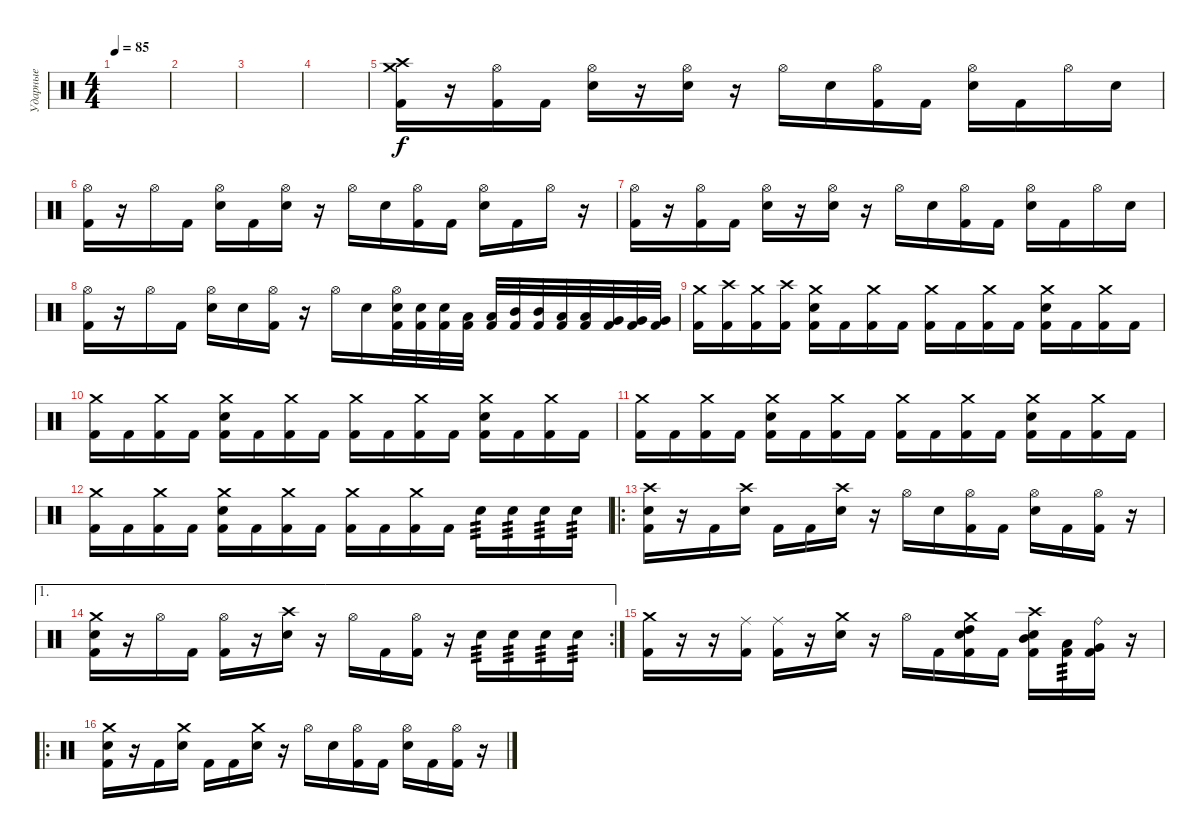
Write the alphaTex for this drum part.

\track ("Ударные" "Ударные") {instrument percussion}
\staff {score}
\articulation defaults
\ts (4 4)
\tempo 85
\clef neutral
\ks c
|
|
|
|
("Crash medium (hit)" "Crash high (hit)" "Kick (hit) 2").16 r.16 ("Hi-Hat (open)" "Kick (hit) 2").16 "Kick (hit) 2".16 ("Hi-Hat (open)" "Electric Snare (hit)").16 r.16 ("Hi-Hat (open)" "Electric Snare (hit)").16 r.16 "Hi-Hat (open)".16 "Electric Snare (hit)".16 ("Hi-Hat (open)" "Kick (hit) 2").16 "Kick (hit) 2".16 ("Hi-Hat (open)" "Electric Snare (hit)").16 "Kick (hit) 2".16 "Hi-Hat (open)".16 "Electric Snare (hit)".16 |
("Hi-Hat (open)" "Kick (hit) 2").16 r.16 "Hi-Hat (open)".16 "Kick (hit) 2".16 ("Hi-Hat (open)" "Electric Snare (hit)").16 "Kick (hit) 2".16 ("Hi-Hat (open)" "Electric Snare (hit)").16 r.16 "Hi-Hat (open)".16 "Electric Snare (hit)".16 ("Hi-Hat (open)" "Kick (hit) 2").16 "Kick (hit) 2".16 ("Hi-Hat (open)" "Electric Snare (hit)").16 "Kick (hit) 2".16 "Hi-Hat (open)".16 r.16 |
("Hi-Hat (open)" "Kick (hit) 2").16 r.16 ("Hi-Hat (open)" "Kick (hit) 2").16 "Kick (hit) 2".16 ("Hi-Hat (open)" "Electric Snare (hit)").16 r.16 ("Hi-Hat (open)" "Electric Snare (hit)").16 r.16 "Hi-Hat (open)".16 "Electric Snare (hit)".16 ("Hi-Hat (open)" "Kick (hit) 2").16 "Kick (hit) 2".16 ("Hi-Hat (open)" "Electric Snare (hit)").16 "Kick (hit) 2".16 "Hi-Hat (open)".16 "Electric Snare (hit)".16 |
("Hi-Hat (open)" "Kick (hit) 2").16 r.16 "Hi-Hat (open)".16 "Kick (hit) 2".16 ("Hi-Hat (open)" "Electric Snare (hit)").16 "Electric Snare (hit)".16 ("Hi-Hat (open)" "Kick (hit) 2").16 r.16 "Hi-Hat (open)".16 "Electric Snare (hit)".16 ("Hi-Hat (open)" "Electric Snare (hit)" "Kick (hit) 2").32 ("Electric Snare (hit)" "Kick (hit) 2").32 ("Electric Snare (hit)" "Kick (hit) 2").32 ("Low Tom (hit)" "Kick (hit) 2").32 ("Low Tom (hit)" "Kick (hit) 2").32 ("Mid Tom (hit)" "Kick (hit) 2").32 ("Mid Tom (hit)" "Kick (hit) 2").32 ("Low Tom (hit)" "Kick (hit) 2").32 ("Low Tom (hit)" "Kick (hit) 2").32 ("Very Low Tom (hit)" "Kick (hit) 2").32 ("Very Low Tom (hit)" "Kick (hit) 2").32 ("Very Low Tom (hit)" "Kick (hit) 2").32 |
("Crash medium (hit)" "Kick (hit) 2").16 ("Crash high (hit)" "Kick (hit) 2").16 ("Crash medium (hit)" "Kick (hit) 2").16 ("Crash high (hit)" "Kick (hit) 2").16 ("Crash medium (hit)" "Electric Snare (hit)" "Kick (hit) 2").16 "Kick (hit) 2".16 ("Crash medium (hit)" "Kick (hit) 2").16 "Kick (hit) 2".16 ("Crash medium (hit)" "Kick (hit) 2").16 "Kick (hit) 2".16 ("Crash medium (hit)" "Kick (hit) 2").16 "Kick (hit) 2".16 ("Crash medium (hit)" "Electric Snare (hit)" "Kick (hit) 2").16 "Kick (hit) 2".16 ("Crash medium (hit)" "Kick (hit) 2").16 "Kick (hit) 2".16 |
("Crash medium (hit)" "Kick (hit) 2").16 "Kick (hit) 2".16 ("Crash medium (hit)" "Kick (hit) 2").16 "Kick (hit) 2".16 ("Crash medium (hit)" "Electric Snare (hit)" "Kick (hit) 2").16 "Kick (hit) 2".16 ("Crash medium (hit)" "Kick (hit) 2").16 "Kick (hit) 2".16 ("Crash medium (hit)" "Kick (hit) 2").16 "Kick (hit) 2".16 ("Crash medium (hit)" "Kick (hit) 2").16 "Kick (hit) 2".16 ("Crash medium (hit)" "Electric Snare (hit)" "Kick (hit) 2").16 "Kick (hit) 2".16 ("Crash medium (hit)" "Kick (hit) 2").16 "Kick (hit) 2".16 |
("Crash medium (hit)" "Kick (hit) 2").16 "Kick (hit) 2".16 ("Crash medium (hit)" "Kick (hit) 2").16 "Kick (hit) 2".16 ("Crash medium (hit)" "Electric Snare (hit)" "Kick (hit) 2").16 "Kick (hit) 2".16 ("Crash medium (hit)" "Kick (hit) 2").16 "Kick (hit) 2".16 ("Crash medium (hit)" "Kick (hit) 2").16 "Kick (hit) 2".16 ("Crash medium (hit)" "Kick (hit) 2").16 "Kick (hit) 2".16 ("Crash medium (hit)" "Electric Snare (hit)" "Kick (hit) 2").16 "Kick (hit) 2".16 ("Crash medium (hit)" "Kick (hit) 2").16 "Kick (hit) 2".16 |
("Crash medium (hit)" "Kick (hit) 2").16 "Kick (hit) 2".16 ("Crash medium (hit)" "Kick (hit) 2").16 "Kick (hit) 2".16 ("Crash medium (hit)" "Electric Snare (hit)" "Kick (hit) 2").16 "Kick (hit) 2".16 ("Crash medium (hit)" "Kick (hit) 2").16 "Kick (hit) 2".16 ("Crash medium (hit)" "Kick (hit) 2").16 "Kick (hit) 2".16 ("Crash medium (hit)" "Kick (hit) 2").16 "Kick (hit) 2".16 "Electric Snare (hit)".16{tp 3} "Electric Snare (hit)".16{tp 3} "Electric Snare (hit)".16{tp 3} "Electric Snare (hit)".16{tp 3} |
\ro
("Crash high (hit)" "Electric Snare (hit)" "Kick (hit) 2").16 r.16 "Kick (hit) 2".16 ("Crash high (hit)" "Electric Snare (hit)").16 "Kick (hit) 2".16 "Kick (hit) 2".16 ("Crash high (hit)" "Electric Snare (hit)").16 r.16 "Hi-Hat (open)".16 "Electric Snare (hit)".16 ("Hi-Hat (open)" "Kick (hit) 2").16 "Kick (hit) 2".16 ("Hi-Hat (open)" "Electric Snare (hit)").16 "Kick (hit) 2".16 ("Hi-Hat (open)" "Kick (hit) 2").16 r.16 |
\ae 1
\rc 2
("Crash medium (hit)" "Electric Snare (hit)" "Kick (hit) 2").16 r.16 "Hi-Hat (open)".16 "Kick (hit) 2".16 ("Hi-Hat (open)" "Kick (hit) 2").16 r.16 ("Crash high (hit)" "Electric Snare (hit)").16 r.16 "Hi-Hat (open)".16 "Kick (hit) 2".16 ("Hi-Hat (open)" "Kick (hit) 2").16 r.16 "Electric Snare (hit)".16{tp 3} "Electric Snare (hit)".16{tp 3} "Electric Snare (hit)".16{tp 3} "Electric Snare (hit)".16{tp 3} |
("Crash medium (hit)" "Kick (hit) 2").16 r.16 r.16 ("Ride (middle)" "Kick (hit) 2").16 ("Ride (middle)" "Kick (hit) 2").16 r.16 ("Crash medium (hit)" "Electric Snare (hit)").16 r.16 "Hi-Hat (open)".16 "Kick (hit) 2".16 ("Crash medium (hit)" "High Tom (hit)" "Electric Snare (hit)" "Kick (hit) 2").16 "Kick (hit) 2".16 ("Crash high (hit)" "Mid Tom (hit)" "Electric Snare (hit)" "Kick (hit) 2").16 ("Low Tom (hit)" "Kick (hit) 2").16{tp 3} ("Ride (bell)" "Very Low Tom (hit)" "Kick (hit) 2").16 r.16 |
\ro
("Crash medium (hit)" "Electric Snare (hit)" "Kick (hit) 2").16 r.16 "Kick (hit) 2".16 ("Crash medium (hit)" "Electric Snare (hit)").16 "Kick (hit) 2".16 "Kick (hit) 2".16 ("Crash medium (hit)" "Electric Snare (hit)").16 r.16 "Hi-Hat (open)".16 "Electric Snare (hit)".16 ("Hi-Hat (open)" "Kick (hit) 2").16 "Kick (hit) 2".16 ("Hi-Hat (open)" "Electric Snare (hit)").16 "Kick (hit) 2".16 ("Hi-Hat (open)" "Kick (hit) 2").16 r.16
